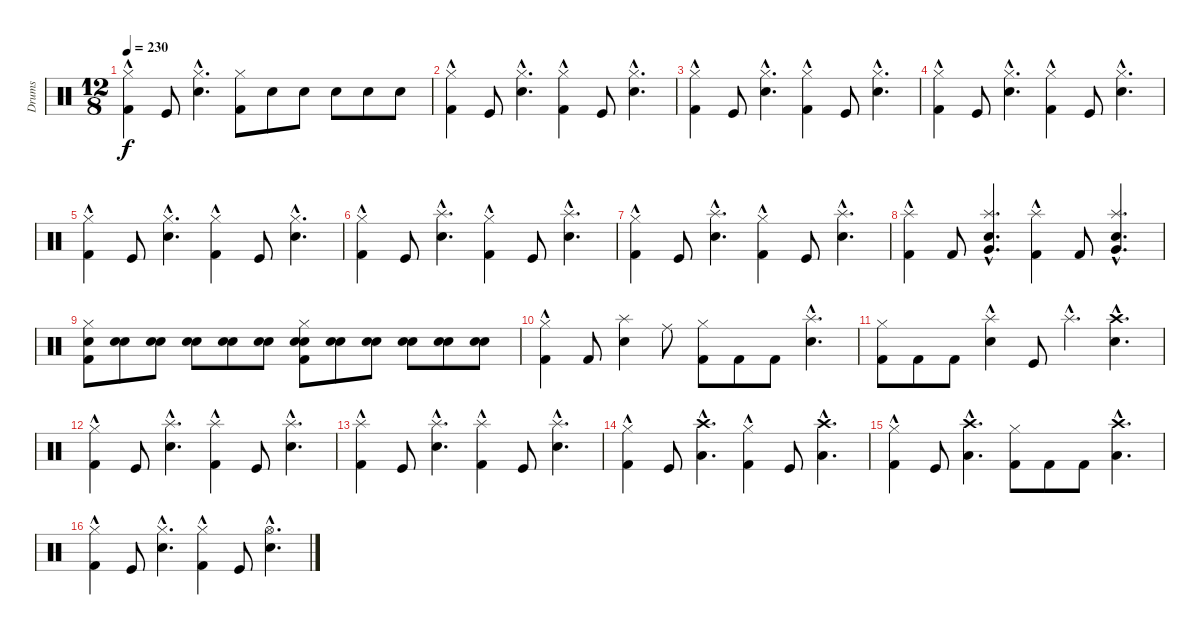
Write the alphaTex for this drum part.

\track ("Drums" "Drums") {instrument percussion}
\staff {score}
\articulation defaults
\ts (12 8)
\tempo 230
\clef neutral
\ks c
("Hi-Hat (closed)"{hac} "Kick (hit) 2").4{dy f} "Kick (hit)".8 ("Hi-Hat (closed)"{hac} "Snare (hit) 2"{hac}).4{d} ("Hi-Hat (closed)" "Kick (hit) 2").8 "Snare (hit) 2".8 "Snare (hit) 2".8 "Snare (hit) 2".8 "Snare (hit) 2".8 "Snare (hit) 2".8 |
("Hi-Hat (closed)"{hac} "Kick (hit) 2").4 "Kick (hit)".8 ("Hi-Hat (closed)"{hac} "Snare (hit) 2"{hac}).4{d} ("Hi-Hat (closed)"{hac} "Kick (hit) 2").4 "Kick (hit)".8 ("Hi-Hat (closed)"{hac} "Snare (hit) 2"{hac}).4{d} |
("Hi-Hat (closed)"{hac} "Kick (hit) 2").4 "Kick (hit)".8 ("Hi-Hat (closed)"{hac} "Snare (hit) 2"{hac}).4{d} ("Hi-Hat (closed)"{hac} "Kick (hit) 2").4 "Kick (hit)".8 ("Hi-Hat (closed)"{hac} "Snare (hit) 2"{hac}).4{d} |
("Hi-Hat (closed)"{hac} "Kick (hit) 2").4 "Kick (hit)".8 ("Hi-Hat (closed)"{hac} "Snare (hit) 2"{hac}).4{d} ("Hi-Hat (closed)"{hac} "Kick (hit) 2").4 "Kick (hit)".8 ("Hi-Hat (closed)"{hac} "Snare (hit) 2"{hac}).4{d} |
("Hi-Hat (closed)"{hac} "Kick (hit) 2").4 "Kick (hit)".8 ("Hi-Hat (closed)"{hac} "Snare (hit) 2"{hac}).4{d} ("Hi-Hat (closed)"{hac} "Kick (hit) 2").4 "Kick (hit)".8 ("Hi-Hat (closed)"{hac} "Snare (hit) 2"{hac}).4{d} |
("Kick (hit) 2" "Hi-Hat (closed)"{hac}).4 "Kick (hit)".8 ("Snare (hit) 2"{hac} "Splash (hit)"{hac}).4{d} ("Kick (hit) 2" "Hi-Hat (closed)"{hac}).4 "Kick (hit)".8 ("Splash (hit)"{hac} "Snare (hit) 2"{hac}).4{d} |
("Kick (hit) 2" "Hi-Hat (closed)"{hac}).4 "Kick (hit)".8 ("Snare (hit) 2"{hac} "Splash (hit)"{hac}).4{d} ("Kick (hit) 2" "Hi-Hat (closed)"{hac}).4 "Kick (hit)".8 ("Splash (hit)"{hac} "Snare (hit) 2"{hac}).4{d} |
("Kick (hit) 2" "Splash (hit)"{hac}).4 "Kick (hit) 2".8 ("Very Low Tom (hit)"{hac} "Snare (hit) 2"{hac} "Splash (hit)"{hac}).4{d} ("Kick (hit) 2" "Splash (hit)"{hac}).4 "Kick (hit) 2".8 ("Splash (hit)"{hac} "Snare (hit) 2"{hac} "Very Low Tom (hit)"{hac}).4{d} |
("Snare (hit) 2" "Hi-Hat (closed)" "Kick (hit) 2").8 ("Electric Snare (hit)" "Snare (hit) 2").8 ("Electric Snare (hit)" "Snare (hit) 2").8 ("Electric Snare (hit)" "Snare (hit) 2").8 ("Electric Snare (hit)" "Snare (hit) 2").8 ("Electric Snare (hit)" "Snare (hit) 2").8 ("Electric Snare (hit)" "Snare (hit) 2" "Hi-Hat (closed)" "Kick (hit) 2").8 ("Electric Snare (hit)" "Snare (hit) 2").8 ("Electric Snare (hit)" "Snare (hit) 2").8 ("Electric Snare (hit)" "Snare (hit) 2").8 ("Electric Snare (hit)" "Snare (hit) 2").8 ("Electric Snare (hit)" "Snare (hit) 2").8 |
("Hi-Hat (closed)"{hac} "Kick (hit) 2").4 "Kick (hit) 2".8 ("Splash (hit)" "Snare (hit) 2").4 "Ride (middle)".8 ("Hi-Hat (closed)" "Kick (hit) 2").8 "Kick (hit) 2".8 "Kick (hit) 2".8 ("Splash (hit)"{hac} "Electric Snare (hit)"{hac}).4{d} |
("Hi-Hat (closed)" "Kick (hit) 2").8 "Kick (hit) 2".8 "Kick (hit) 2".8 ("Splash (hit)"{hac} "Snare (hit) 2").4 "Kick (hit)".8 "Splash (hit)"{hac}.4{d} ("Crash high (hit)"{hac} "Snare (hit) 2"{hac}).4{d} |
("Hi-Hat (closed)"{hac} "Kick (hit) 2").4 "Kick (hit)".8 ("Snare (hit) 2"{hac} "Splash (hit)"{hac}).4{d} ("Kick (hit) 2" "Splash (hit)"{hac}).4 "Kick (hit)".8 ("Snare (hit) 2"{hac} "Splash (hit)"{hac}).4{d} |
("Kick (hit) 2" "Splash (hit)"{hac}).4 "Kick (hit)".8 ("Snare (hit) 2"{hac} "Splash (hit)"{hac}).4{d} ("Kick (hit) 2" "Splash (hit)"{hac}).4 "Kick (hit)".8 ("Snare (hit) 2"{hac} "Splash (hit)"{hac}).4{d} |
("Kick (hit) 2" "Hi-Hat (closed)"{hac}).4 "Kick (hit)".8 ("Crash high (hit)"{hac} "Low Tom (hit)"{hac}).4{d} ("Hi-Hat (closed)"{hac} "Kick (hit) 2").4 "Kick (hit)".8 ("Crash high (hit)"{hac} "Low Tom (hit)"{hac}).4{d} |
("Hi-Hat (closed)"{hac} "Kick (hit) 2").4 "Kick (hit)".8 ("Crash high (hit)"{hac} "Low Tom (hit)"{hac}).4{d} ("Hi-Hat (closed)" "Kick (hit) 2").8 "Kick (hit) 2".8 "Kick (hit) 2".8 ("Crash high (hit)"{hac} "Low Tom (hit)"{hac}).4{d} |
("Hi-Hat (closed)"{hac} "Kick (hit) 2").4 "Kick (hit)".8 ("Hi-Hat (closed)"{hac} "Snare (hit) 2"{hac}).4{d} ("Hi-Hat (closed)"{hac} "Kick (hit) 2").4 "Kick (hit)".8 ("Hi-Hat (open)"{hac} "Snare (hit) 2"{hac}).4{d}
